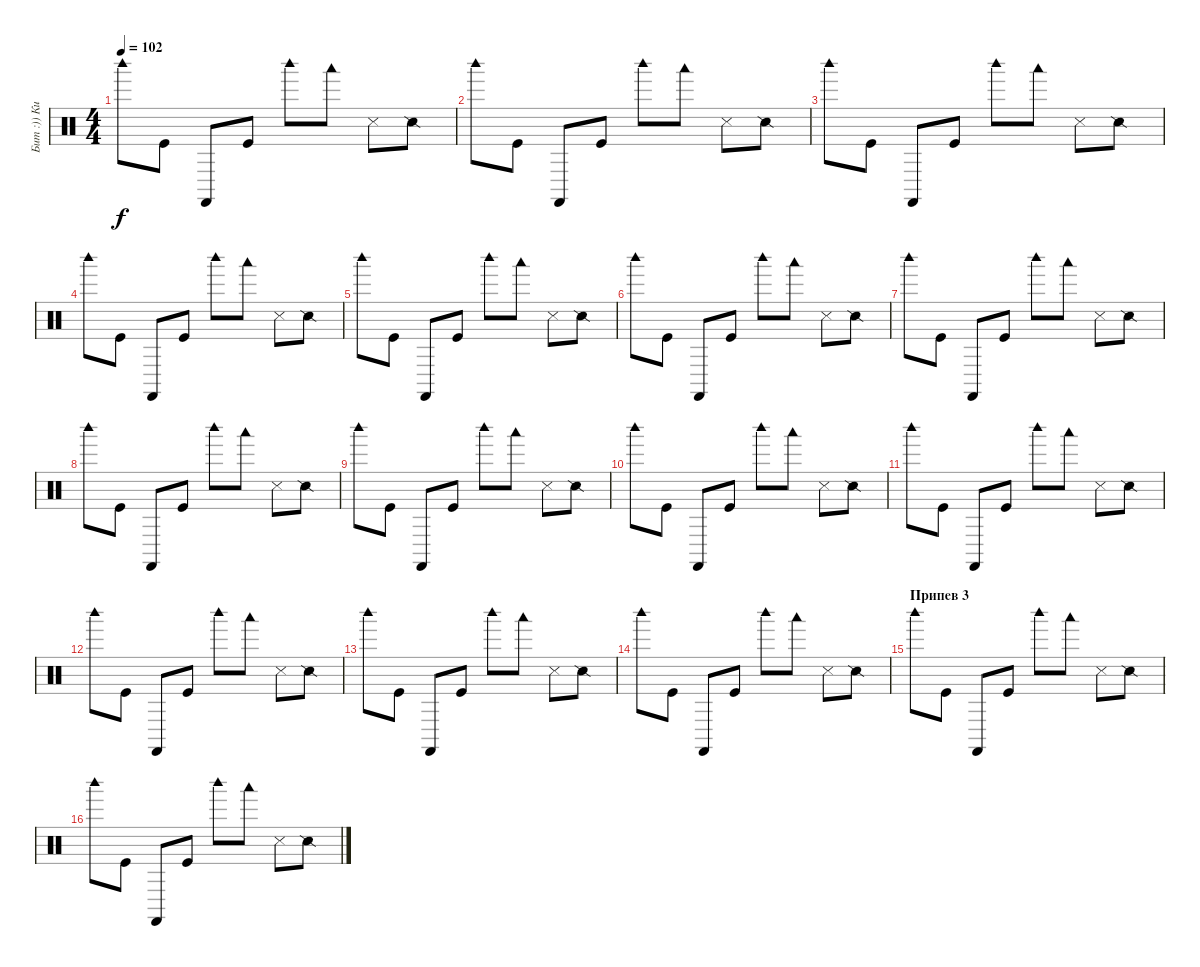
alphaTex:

\track ("Бит :)) Кита" "Бит :)) Ки") {instrument percussion}
\staff {score}
\articulation defaults
\ts (4 4)
\tempo 102
\clef neutral
\ks c "Woodblock high (hit)".8{dy f} "Kick (hit)".8 "Castanets (hit)".8 "Kick (hit)".8 "Woodblock high (hit)".8 "Woodblock low (hit)".8 "Snare (side stick) 3".8 "Snare (side stick) 2".8
|
"Woodblock high (hit)".8 "Kick (hit)".8 "Castanets (hit)".8 "Kick (hit)".8 "Woodblock high (hit)".8 "Woodblock low (hit)".8 "Snare (side stick) 3".8 "Snare (side stick) 2".8 |
"Woodblock high (hit)".8 "Kick (hit)".8 "Castanets (hit)".8 "Kick (hit)".8 "Woodblock high (hit)".8 "Woodblock low (hit)".8 "Snare (side stick) 3".8 "Snare (side stick) 2".8 |
"Woodblock high (hit)".8 "Kick (hit)".8 "Castanets (hit)".8 "Kick (hit)".8 "Woodblock high (hit)".8 "Woodblock low (hit)".8 "Snare (side stick) 3".8 "Snare (side stick) 2".8 |
"Woodblock high (hit)".8 "Kick (hit)".8 "Castanets (hit)".8 "Kick (hit)".8 "Woodblock high (hit)".8 "Woodblock low (hit)".8 "Snare (side stick) 3".8 "Snare (side stick) 2".8 |
"Woodblock high (hit)".8 "Kick (hit)".8 "Castanets (hit)".8 "Kick (hit)".8 "Woodblock high (hit)".8 "Woodblock low (hit)".8 "Snare (side stick) 3".8 "Snare (side stick) 2".8 |
"Woodblock high (hit)".8 "Kick (hit)".8 "Castanets (hit)".8 "Kick (hit)".8 "Woodblock high (hit)".8 "Woodblock low (hit)".8 "Snare (side stick) 3".8 "Snare (side stick) 2".8 |
"Woodblock high (hit)".8 "Kick (hit)".8 "Castanets (hit)".8 "Kick (hit)".8 "Woodblock high (hit)".8 "Woodblock low (hit)".8 "Snare (side stick) 3".8 "Snare (side stick) 2".8 |
"Woodblock high (hit)".8 "Kick (hit)".8 "Castanets (hit)".8 "Kick (hit)".8 "Woodblock high (hit)".8 "Woodblock low (hit)".8 "Snare (side stick) 3".8 "Snare (side stick) 2".8 |
"Woodblock high (hit)".8 "Kick (hit)".8 "Castanets (hit)".8 "Kick (hit)".8 "Woodblock high (hit)".8 "Woodblock low (hit)".8 "Snare (side stick) 3".8 "Snare (side stick) 2".8 |
"Woodblock high (hit)".8 "Kick (hit)".8 "Castanets (hit)".8 "Kick (hit)".8 "Woodblock high (hit)".8 "Woodblock low (hit)".8 "Snare (side stick) 3".8 "Snare (side stick) 2".8 |
"Woodblock high (hit)".8 "Kick (hit)".8 "Castanets (hit)".8 "Kick (hit)".8 "Woodblock high (hit)".8 "Woodblock low (hit)".8 "Snare (side stick) 3".8 "Snare (side stick) 2".8 |
"Woodblock high (hit)".8 "Kick (hit)".8 "Castanets (hit)".8 "Kick (hit)".8 "Woodblock high (hit)".8 "Woodblock low (hit)".8 "Snare (side stick) 3".8 "Snare (side stick) 2".8 |
"Woodblock high (hit)".8 "Kick (hit)".8 "Castanets (hit)".8 "Kick (hit)".8 "Woodblock high (hit)".8 "Woodblock low (hit)".8 "Snare (side stick) 3".8 "Snare (side stick) 2".8 |
\section ("" "Припев 3")
"Woodblock high (hit)".8 "Kick (hit)".8 "Castanets (hit)".8 "Kick (hit)".8 "Woodblock high (hit)".8 "Woodblock low (hit)".8 "Snare (side stick) 3".8 "Snare (side stick) 2".8 |
"Woodblock high (hit)".8 "Kick (hit)".8 "Castanets (hit)".8 "Kick (hit)".8 "Woodblock high (hit)".8 "Woodblock low (hit)".8 "Snare (side stick) 3".8 "Snare (side stick) 2".8
